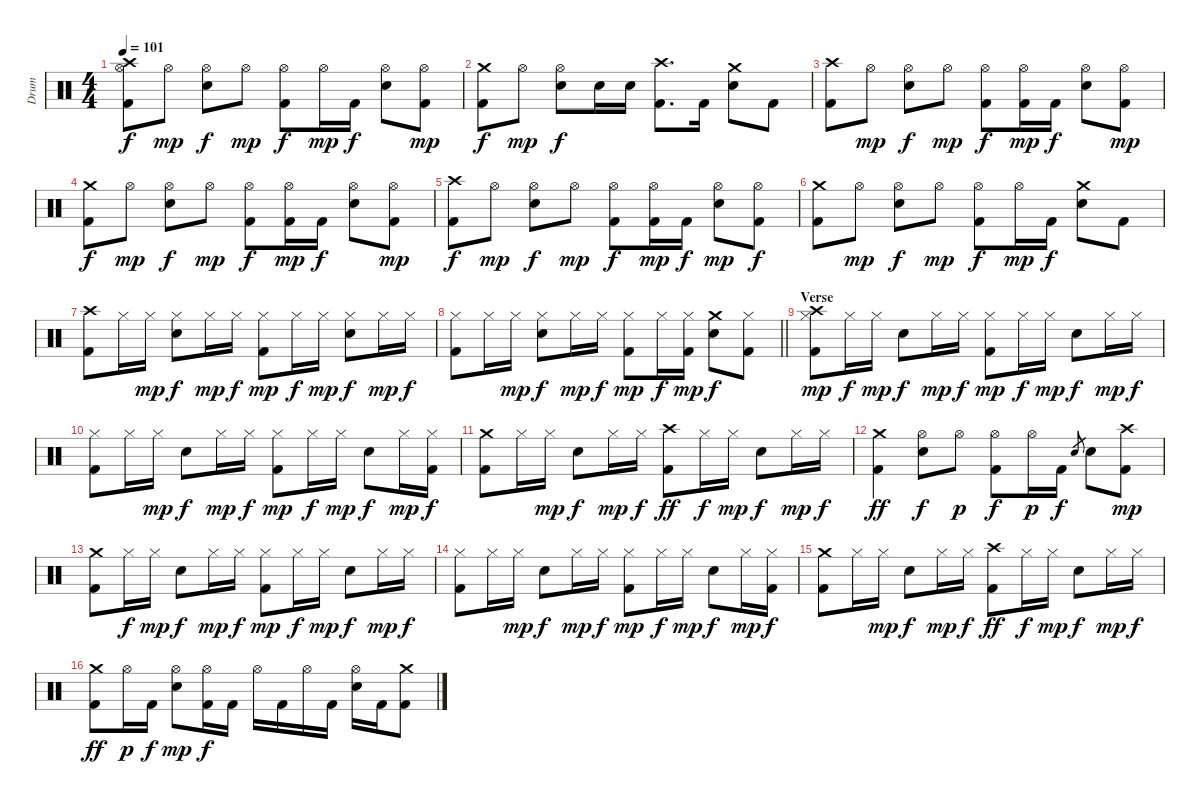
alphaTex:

\track ("Drum" "Drum") {instrument percussion}
\staff {score}
\articulation defaults
\ts (4 4)
\tempo 101
\clef neutral
\ks c
("Crash high (hit)" "Hi-Hat (open)" "Kick (hit) 2").8{dy f} "Hi-Hat (open)".8{dy mp} ("Hi-Hat (open)" "Snare (hit) 2").8{dy f} "Hi-Hat (open)".8{dy mp} ("Hi-Hat (open)" "Kick (hit) 2").8{dy f} "Hi-Hat (open)".16{dy mp} "Kick (hit) 2".16{dy f} ("Hi-Hat (open)" "Snare (hit) 2").8 ("Hi-Hat (open)" "Kick (hit) 2").8{dy mp} |
("Crash medium (hit)" "Kick (hit) 2").8{dy f} "Hi-Hat (open)".8{dy mp} ("Hi-Hat (open)" "Snare (hit) 2").8{dy f} "Snare (hit) 2".16 "Snare (hit) 2".16 ("Crash high (hit)" "Kick (hit) 2").8{d} "Kick (hit) 2".16 ("Crash medium (hit)" "Snare (hit) 2").8 "Kick (hit) 2".8 |
("Crash high (hit)" "Kick (hit) 2").8 "Hi-Hat (open)".8{dy mp} ("Hi-Hat (open)" "Snare (hit) 2").8{dy f} "Hi-Hat (open)".8{dy mp} ("Hi-Hat (open)" "Kick (hit) 2").8{dy f} ("Hi-Hat (open)" "Kick (hit) 2").16{dy mp} "Kick (hit) 2".16{dy f} ("Hi-Hat (open)" "Snare (hit) 2").8 ("Hi-Hat (open)" "Kick (hit) 2").8{dy mp} |
("Crash medium (hit)" "Kick (hit) 2").8{dy f} "Hi-Hat (open)".8{dy mp} ("Hi-Hat (open)" "Snare (hit) 2").8{dy f} "Hi-Hat (open)".8{dy mp} ("Hi-Hat (open)" "Kick (hit) 2").8{dy f} ("Hi-Hat (open)" "Kick (hit) 2").16{dy mp} "Kick (hit) 2".16{dy f} ("Hi-Hat (open)" "Snare (hit) 2").8 ("Hi-Hat (open)" "Kick (hit) 2").8{dy mp} |
("Crash high (hit)" "Kick (hit) 2").8{dy f} "Hi-Hat (open)".8{dy mp} ("Hi-Hat (open)" "Snare (hit) 2").8{dy f} "Hi-Hat (open)".8{dy mp} ("Hi-Hat (open)" "Kick (hit) 2").8{dy f} ("Hi-Hat (open)" "Kick (hit) 2").16{dy mp} "Kick (hit) 2".16{dy f} ("Hi-Hat (open)" "Snare (hit) 2").8{dy mp} ("Hi-Hat (open)" "Kick (hit) 2").8{dy f} |
("Crash medium (hit)" "Kick (hit) 2").8 "Hi-Hat (open)".8{dy mp} ("Hi-Hat (open)" "Snare (hit) 2").8{dy f} "Hi-Hat (open)".8{dy mp} ("Hi-Hat (open)" "Kick (hit) 2").8{dy f} "Hi-Hat (open)".16{dy mp} "Kick (hit) 2".16{dy f} ("Crash medium (hit)" "Snare (hit) 2").8 "Kick (hit) 2".8 |
("Crash high (hit)" "Kick (hit) 2").8 "Hi-Hat (closed)".16 "Hi-Hat (closed)".16{dy mp} ("Hi-Hat (closed)" "Snare (hit) 2").8{dy f} "Hi-Hat (closed)".16{dy mp} "Hi-Hat (closed)".16{dy f} ("Hi-Hat (closed)" "Kick (hit) 2").8{dy mp} "Hi-Hat (closed)".16{dy f} "Hi-Hat (closed)".16{dy mp} ("Hi-Hat (closed)" "Snare (hit) 2").8{dy f} "Hi-Hat (closed)".16{dy mp} "Hi-Hat (closed)".16{dy f} |
\barLineRight lightlight
("Hi-Hat (closed)" "Kick (hit) 2").8 "Hi-Hat (closed)".16 "Hi-Hat (closed)".16{dy mp} ("Hi-Hat (closed)" "Snare (hit) 2").8{dy f} "Hi-Hat (closed)".16{dy mp} "Hi-Hat (closed)".16{dy f} ("Hi-Hat (closed)" "Kick (hit) 2").8{dy mp} "Hi-Hat (closed)".16{dy f} ("Hi-Hat (closed)" "Kick (hit) 2").16{dy mp} ("Crash medium (hit)" "Snare (hit) 2").8{dy f} ("Hi-Hat (closed)" "Kick (hit) 2").8 |
\section ("" "Verse")
("Crash high (hit)" "Hi-Hat (closed)" "Kick (hit) 2").8{dy mp} "Hi-Hat (closed)".16{dy f} "Hi-Hat (closed)".16{dy mp} "Snare (hit) 2".8{dy f} "Hi-Hat (closed)".16{dy mp} "Hi-Hat (closed)".16{dy f} ("Hi-Hat (closed)" "Kick (hit) 2").8{dy mp} "Hi-Hat (closed)".16{dy f} "Hi-Hat (closed)".16{dy mp} "Snare (hit) 2".8{dy f} "Hi-Hat (closed)".16{dy mp} "Hi-Hat (closed)".16{dy f} |
("Hi-Hat (closed)" "Kick (hit) 2").8 "Hi-Hat (closed)".16 "Hi-Hat (closed)".16{dy mp} "Snare (hit) 2".8{dy f} "Hi-Hat (closed)".16{dy mp} "Hi-Hat (closed)".16{dy f} ("Hi-Hat (closed)" "Kick (hit) 2").8{dy mp} "Hi-Hat (closed)".16{dy f} "Hi-Hat (closed)".16{dy mp} "Snare (hit) 2".8{dy f} "Hi-Hat (closed)".16{dy mp} ("Hi-Hat (closed)" "Kick (hit) 2").16{dy f} |
("Crash medium (hit)" "Kick (hit) 2").8 "Hi-Hat (closed)".16 "Hi-Hat (closed)".16{dy mp} "Snare (hit) 2".8{dy f} "Hi-Hat (closed)".16{dy mp} "Hi-Hat (closed)".16{dy f} ("Crash high (hit)" "Kick (hit) 2").8{dy ff} "Hi-Hat (closed)".16{dy f} "Hi-Hat (closed)".16{dy mp} "Snare (hit) 2".8{dy f} "Hi-Hat (closed)".16{dy mp} "Hi-Hat (closed)".16{dy f} |
("Crash medium (hit)" "Kick (hit) 2").4{dy ff} ("Hi-Hat (open)" "Snare (hit) 2").8{dy f} "Hi-Hat (open)".8{dy p} ("Hi-Hat (open)" "Kick (hit) 2").8{dy f} "Hi-Hat (open)".16{dy p} "Kick (hit) 2".16{dy f} "Snare (hit) 2".8{gr} "Snare (hit) 2".8 ("Crash high (hit)" "Kick (hit) 2").8{dy mp} |
("Crash medium (hit)" "Kick (hit) 2").8 "Hi-Hat (closed)".16{dy f} "Hi-Hat (closed)".16{dy mp} "Snare (hit) 2".8{dy f} "Hi-Hat (closed)".16{dy mp} "Hi-Hat (closed)".16{dy f} ("Hi-Hat (closed)" "Kick (hit) 2").8{dy mp} "Hi-Hat (closed)".16{dy f} "Hi-Hat (closed)".16{dy mp} "Snare (hit) 2".8{dy f} "Hi-Hat (closed)".16{dy mp} "Hi-Hat (closed)".16{dy f} |
("Hi-Hat (closed)" "Kick (hit) 2").8 "Hi-Hat (closed)".16 "Hi-Hat (closed)".16{dy mp} "Snare (hit) 2".8{dy f} "Hi-Hat (closed)".16{dy mp} "Hi-Hat (closed)".16{dy f} ("Hi-Hat (closed)" "Kick (hit) 2").8{dy mp} "Hi-Hat (closed)".16{dy f} "Hi-Hat (closed)".16{dy mp} "Snare (hit) 2".8{dy f} "Hi-Hat (closed)".16{dy mp} ("Hi-Hat (closed)" "Kick (hit) 2").16{dy f} |
("Crash medium (hit)" "Kick (hit) 2").8 "Hi-Hat (closed)".16 "Hi-Hat (closed)".16{dy mp} "Snare (hit) 2".8{dy f} "Hi-Hat (closed)".16{dy mp} "Hi-Hat (closed)".16{dy f} ("Crash high (hit)" "Kick (hit) 2").8{dy ff} "Hi-Hat (closed)".16{dy f} "Hi-Hat (closed)".16{dy mp} "Snare (hit) 2".8{dy f} "Hi-Hat (closed)".16{dy mp} "Hi-Hat (closed)".16{dy f} |
("Crash medium (hit)" "Kick (hit) 2").8{dy ff} "Hi-Hat (open)".16{dy p} "Kick (hit) 2".16{dy f} ("Hi-Hat (open)" "Snare (hit) 2").8{dy mp} ("Hi-Hat (open)" "Kick (hit) 2").16{dy f} "Kick (hit) 2".16 "Hi-Hat (open)".16 "Kick (hit) 2".16 "Hi-Hat (open)".16 "Kick (hit) 2".16 ("Hi-Hat (open)" "Snare (hit) 2").16 "Kick (hit) 2".16 ("Crash medium (hit)" "Kick (hit) 2").8
